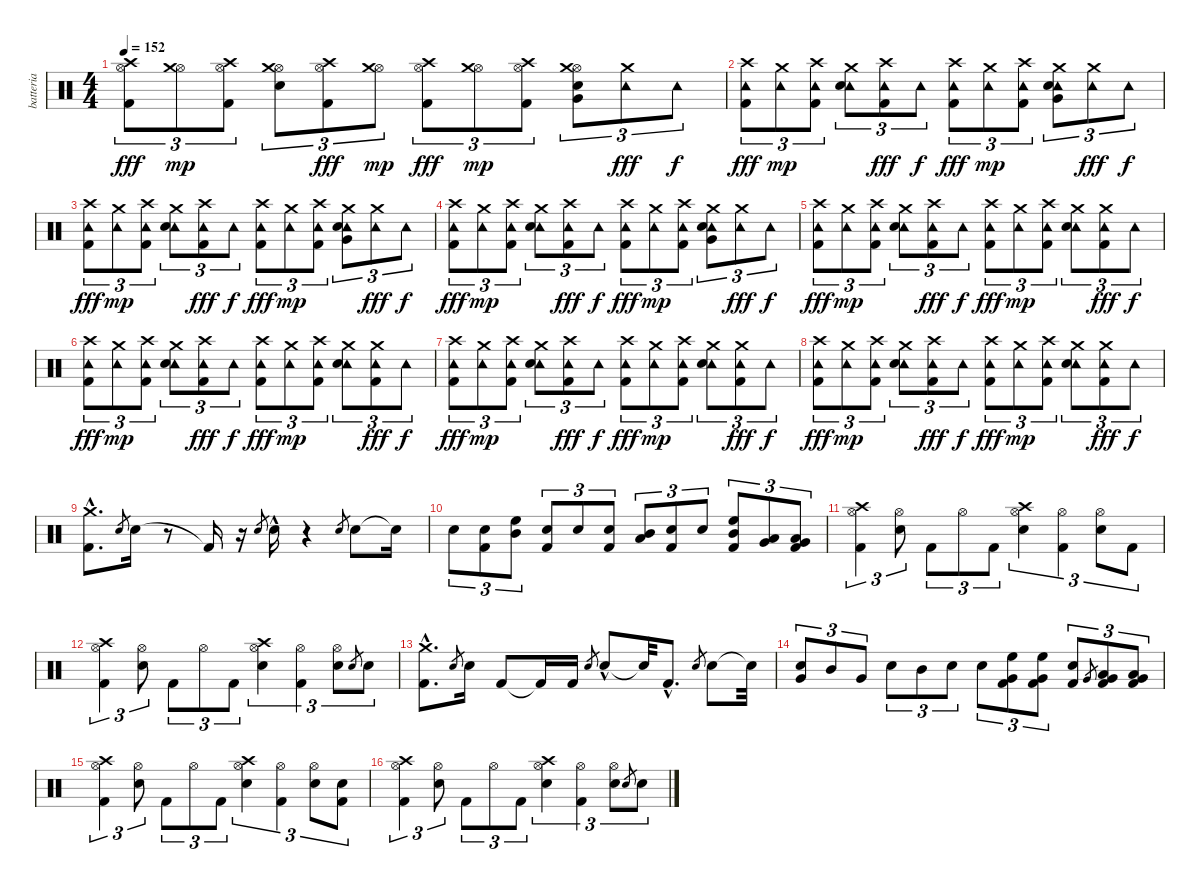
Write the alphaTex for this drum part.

\track ("batteria" "batteria") {instrument percussion}
\staff {score}
\articulation defaults
\ts (4 4)
\tempo 152
\clef neutral
\ks c
("Hi-Hat (open)" "Crash high (hit)" "Kick (hit) 2").8{tu (3 2) dy fff} ("Hi-Hat (open)" "Crash medium (hit)").8{tu (3 2) dy mp} ("Hi-Hat (open)" "Crash high (hit)" "Kick (hit) 2").8{tu (3 2)} ("Hi-Hat (open)" "Crash medium (hit)" "Electric Snare (hit)").8{tu (3 2)} ("Hi-Hat (open)" "Crash high (hit)" "Kick (hit) 2").8{tu (3 2) dy fff} ("Hi-Hat (open)" "Crash medium (hit)").8{tu (3 2) dy mp} ("Hi-Hat (open)" "Crash high (hit)" "Kick (hit) 2").8{tu (3 2) dy fff} ("Hi-Hat (open)" "Crash medium (hit)").8{tu (3 2) dy mp} ("Hi-Hat (open)" "Crash high (hit)" "Kick (hit) 2").8{tu (3 2)} ("Hi-Hat (open)" "Crash medium (hit)" "Very Low Tom (hit)" "Electric Snare (hit)").8{tu (3 2)} ("Tambourine (hit)" "Crash medium (hit)").8{tu (3 2) dy fff} "Tambourine (hit)".8{tu (3 2) dy f} |
("Tambourine (hit)" "Crash high (hit)" "Kick (hit) 2").8{tu (3 2) dy fff} ("Tambourine (hit)" "Crash medium (hit)").8{tu (3 2) dy mp} ("Tambourine (hit)" "Crash high (hit)" "Kick (hit) 2").8{tu (3 2)} ("Tambourine (hit)" "Crash medium (hit)" "Electric Snare (hit)").8{tu (3 2)} ("Tambourine (hit)" "Crash high (hit)" "Kick (hit) 2").8{tu (3 2) dy fff} "Tambourine (hit)".8{tu (3 2) dy f} ("Tambourine (hit)" "Crash high (hit)" "Kick (hit) 2").8{tu (3 2) dy fff} ("Tambourine (hit)" "Crash medium (hit)").8{tu (3 2) dy mp} ("Tambourine (hit)" "Crash high (hit)" "Kick (hit) 2").8{tu (3 2)} ("Tambourine (hit)" "Crash medium (hit)" "Very Low Tom (hit)" "Electric Snare (hit)").8{tu (3 2)} ("Tambourine (hit)" "Crash medium (hit)").8{tu (3 2) dy fff} "Tambourine (hit)".8{tu (3 2) dy f} |
("Tambourine (hit)" "Crash high (hit)" "Kick (hit) 2").8{tu (3 2) dy fff} ("Tambourine (hit)" "Crash medium (hit)").8{tu (3 2) dy mp} ("Tambourine (hit)" "Crash high (hit)" "Kick (hit) 2").8{tu (3 2)} ("Tambourine (hit)" "Crash medium (hit)" "Electric Snare (hit)").8{tu (3 2)} ("Tambourine (hit)" "Crash high (hit)" "Kick (hit) 2").8{tu (3 2) dy fff} "Tambourine (hit)".8{tu (3 2) dy f} ("Tambourine (hit)" "Crash high (hit)" "Kick (hit) 2").8{tu (3 2) dy fff} ("Tambourine (hit)" "Crash medium (hit)").8{tu (3 2) dy mp} ("Tambourine (hit)" "Crash high (hit)" "Kick (hit) 2").8{tu (3 2)} ("Tambourine (hit)" "Crash medium (hit)" "Very Low Tom (hit)" "Electric Snare (hit)").8{tu (3 2)} ("Tambourine (hit)" "Crash medium (hit)").8{tu (3 2) dy fff} "Tambourine (hit)".8{tu (3 2) dy f} |
("Tambourine (hit)" "Crash high (hit)" "Kick (hit) 2").8{tu (3 2) dy fff} ("Tambourine (hit)" "Crash medium (hit)").8{tu (3 2) dy mp} ("Tambourine (hit)" "Crash high (hit)" "Kick (hit) 2").8{tu (3 2)} ("Tambourine (hit)" "Crash medium (hit)" "Electric Snare (hit)").8{tu (3 2)} ("Tambourine (hit)" "Crash high (hit)" "Kick (hit) 2").8{tu (3 2) dy fff} "Tambourine (hit)".8{tu (3 2) dy f} ("Tambourine (hit)" "Crash high (hit)" "Kick (hit) 2").8{tu (3 2) dy fff} ("Tambourine (hit)" "Crash medium (hit)").8{tu (3 2) dy mp} ("Tambourine (hit)" "Crash high (hit)" "Kick (hit) 2").8{tu (3 2)} ("Tambourine (hit)" "Crash medium (hit)" "Very Low Tom (hit)" "Electric Snare (hit)").8{tu (3 2)} ("Tambourine (hit)" "Crash medium (hit)").8{tu (3 2) dy fff} "Tambourine (hit)".8{tu (3 2) dy f} |
("Tambourine (hit)" "Crash high (hit)" "Kick (hit) 2").8{tu (3 2) dy fff} ("Tambourine (hit)" "Crash medium (hit)").8{tu (3 2) dy mp} ("Tambourine (hit)" "Crash high (hit)" "Kick (hit) 2").8{tu (3 2)} ("Tambourine (hit)" "Crash medium (hit)" "Electric Snare (hit)").8{tu (3 2)} ("Tambourine (hit)" "Crash high (hit)" "Kick (hit) 2").8{tu (3 2) dy fff} "Tambourine (hit)".8{tu (3 2) dy f} ("Tambourine (hit)" "Crash high (hit)" "Kick (hit) 2").8{tu (3 2) dy fff} ("Tambourine (hit)" "Crash medium (hit)").8{tu (3 2) dy mp} ("Tambourine (hit)" "Crash high (hit)" "Kick (hit) 2").8{tu (3 2)} ("Tambourine (hit)" "Crash medium (hit)" "Electric Snare (hit)").8{tu (3 2)} ("Tambourine (hit)" "Crash medium (hit)" "Kick (hit) 2").8{tu (3 2) dy fff} "Tambourine (hit)".8{tu (3 2) dy f} |
("Tambourine (hit)" "Crash high (hit)" "Kick (hit) 2").8{tu (3 2) dy fff} ("Tambourine (hit)" "Crash medium (hit)").8{tu (3 2) dy mp} ("Tambourine (hit)" "Crash high (hit)" "Kick (hit) 2").8{tu (3 2)} ("Tambourine (hit)" "Crash medium (hit)" "Electric Snare (hit)").8{tu (3 2)} ("Tambourine (hit)" "Crash high (hit)" "Kick (hit) 2").8{tu (3 2) dy fff} "Tambourine (hit)".8{tu (3 2) dy f} ("Tambourine (hit)" "Crash high (hit)" "Kick (hit) 2").8{tu (3 2) dy fff} ("Tambourine (hit)" "Crash medium (hit)").8{tu (3 2) dy mp} ("Tambourine (hit)" "Crash high (hit)" "Kick (hit) 2").8{tu (3 2)} ("Tambourine (hit)" "Crash medium (hit)" "Electric Snare (hit)").8{tu (3 2)} ("Tambourine (hit)" "Crash medium (hit)" "Kick (hit) 2").8{tu (3 2) dy fff} "Tambourine (hit)".8{tu (3 2) dy f} |
("Tambourine (hit)" "Crash high (hit)" "Kick (hit) 2").8{tu (3 2) dy fff} ("Tambourine (hit)" "Crash medium (hit)").8{tu (3 2) dy mp} ("Tambourine (hit)" "Crash high (hit)" "Kick (hit) 2").8{tu (3 2)} ("Tambourine (hit)" "Crash medium (hit)" "Electric Snare (hit)").8{tu (3 2)} ("Tambourine (hit)" "Crash high (hit)" "Kick (hit) 2").8{tu (3 2) dy fff} "Tambourine (hit)".8{tu (3 2) dy f} ("Tambourine (hit)" "Crash high (hit)" "Kick (hit) 2").8{tu (3 2) dy fff} ("Tambourine (hit)" "Crash medium (hit)").8{tu (3 2) dy mp} ("Tambourine (hit)" "Crash high (hit)" "Kick (hit) 2").8{tu (3 2)} ("Tambourine (hit)" "Crash medium (hit)" "Electric Snare (hit)").8{tu (3 2)} ("Tambourine (hit)" "Crash medium (hit)" "Kick (hit) 2").8{tu (3 2) dy fff} "Tambourine (hit)".8{tu (3 2) dy f} |
("Tambourine (hit)" "Crash high (hit)" "Kick (hit) 2").8{tu (3 2) dy fff} ("Tambourine (hit)" "Crash medium (hit)").8{tu (3 2) dy mp} ("Tambourine (hit)" "Crash high (hit)" "Kick (hit) 2").8{tu (3 2)} ("Tambourine (hit)" "Crash medium (hit)" "Electric Snare (hit)").8{tu (3 2)} ("Tambourine (hit)" "Crash high (hit)" "Kick (hit) 2").8{tu (3 2) dy fff} "Tambourine (hit)".8{tu (3 2) dy f} ("Tambourine (hit)" "Crash high (hit)" "Kick (hit) 2").8{tu (3 2) dy fff} ("Tambourine (hit)" "Crash medium (hit)").8{tu (3 2) dy mp} ("Tambourine (hit)" "Crash high (hit)" "Kick (hit) 2").8{tu (3 2)} ("Tambourine (hit)" "Crash medium (hit)" "Electric Snare (hit)").8{tu (3 2)} ("Tambourine (hit)" "Crash medium (hit)" "Kick (hit) 2").8{tu (3 2) dy fff} "Tambourine (hit)".8{tu (3 2) dy f} |
("Crash medium (hit)"{hac} "Kick (hit) 2"{hac}).8{d} "Electric Snare (hit)".8{gr} "Electric Snare (hit)".16 r.8 "Kick (hit) 2"{t}.16 r.16 "Electric Snare (hit)".8{gr} "Electric Snare (hit)"{hac}.16 r.4 "Electric Snare (hit)".8{gr} "Electric Snare (hit)".8 "Snare (hit)"{t}.16 |
"Electric Snare (hit)".8{tu (3 2)} ("Electric Snare (hit)" "Kick (hit) 2").8{tu (3 2)} ("High Floor Tom (hit)" "Mid Tom (hit)").8{tu (3 2)} ("Electric Snare (hit)" "Kick (hit) 2").8{tu (3 2)} "Electric Snare (hit)".8{tu (3 2)} ("Electric Snare (hit)" "Kick (hit) 2").8{tu (3 2)} ("Low Floor Tom (hit)" "Mid Tom (hit)").8{tu (3 2)} ("Electric Snare (hit)" "Kick (hit) 2").8{tu (3 2)} "Electric Snare (hit)".8{tu (3 2)} ("Mid Tom (hit)" "High Floor Tom (hit)" "Kick (hit) 2").8{tu (3 2)} ("Low Tom (hit)" "Very Low Tom (hit)").8{tu (3 2)} ("Low Floor Tom (hit)" "Very Low Tom (hit)" "Kick (hit) 2").8{tu (3 2)} |
("Hi-Hat (open)" "Crash high (hit)" "Kick (hit) 2").4{tu (3 2)} ("Hi-Hat (open)" "Electric Snare (hit)").8{tu (3 2)} "Kick (hit) 2".8{tu (3 2)} "Hi-Hat (open)".8{tu (3 2)} "Kick (hit) 2".8{tu (3 2)} ("Hi-Hat (open)" "Crash high (hit)" "Electric Snare (hit)").4{tu (3 2)} ("Hi-Hat (open)" "Kick (hit) 2").4{tu (3 2)} ("Hi-Hat (open)" "Electric Snare (hit)").8{tu (3 2)} "Kick (hit) 2".8{tu (3 2)} |
("Hi-Hat (open)" "Crash high (hit)" "Kick (hit) 2").4{tu (3 2)} ("Hi-Hat (open)" "Electric Snare (hit)").8{tu (3 2)} "Kick (hit) 2".8{tu (3 2)} "Hi-Hat (open)".8{tu (3 2)} "Kick (hit) 2".8{tu (3 2)} ("Hi-Hat (open)" "Crash high (hit)" "Electric Snare (hit)").4{tu (3 2)} ("Hi-Hat (open)" "Kick (hit) 2").4{tu (3 2)} ("Hi-Hat (open)" "Electric Snare (hit)").8{tu (3 2)} "Electric Snare (hit)".8{gr} "Electric Snare (hit)".8{tu (3 2)} |
("Crash medium (hit)"{hac} "Kick (hit) 2"{hac}).8{d} "Electric Snare (hit)".8{gr} "Electric Snare (hit)".16 "Kick (hit) 2".8 "Kick (hit) 2"{t}.16 "Kick (hit) 2".16 "Electric Snare (hit)".8{gr} "Electric Snare (hit)"{hac}.8 "Electric Snare (hit)"{t}.32 "Kick (hit) 2"{hac}.8{d} "Electric Snare (hit)".8{gr} "Electric Snare (hit)".8 "Electric Snare (hit)"{t}.32 |
("Very Low Tom (hit)" "Electric Snare (hit)").8{tu (3 2)} "Mid Tom (hit)".8{tu (3 2)} "Very Low Tom (hit)".8{tu (3 2)} "Electric Snare (hit)".8{tu (3 2)} "Mid Tom (hit)".8{tu (3 2)} "Electric Snare (hit)".8{tu (3 2)} "Electric Snare (hit)".8{tu (3 2)} ("Very Low Tom (hit)" "High Floor Tom (hit)" "Kick (hit) 2").8{tu (3 2)} ("Very Low Tom (hit)" "High Floor Tom (hit)" "Kick (hit) 2").8{tu (3 2)} ("Electric Snare (hit)" "Kick (hit) 2").8{tu (3 2)} "Very Low Tom (hit)".8{gr} ("Low Tom (hit)" "Very Low Tom (hit)" "Kick (hit) 2").8{tu (3 2)} ("Low Floor Tom (hit)" "Very Low Tom (hit)" "Kick (hit) 2").8{tu (3 2)} |
("Hi-Hat (open)" "Crash high (hit)" "Kick (hit) 2").4{tu (3 2)} ("Hi-Hat (open)" "Electric Snare (hit)").8{tu (3 2)} "Kick (hit) 2".8{tu (3 2)} "Hi-Hat (open)".8{tu (3 2)} "Kick (hit) 2".8{tu (3 2)} ("Hi-Hat (open)" "Crash high (hit)" "Electric Snare (hit)").4{tu (3 2)} ("Hi-Hat (open)" "Kick (hit) 2").4{tu (3 2)} ("Hi-Hat (open)" "Electric Snare (hit)").8{tu (3 2)} ("Electric Snare (hit)" "Kick (hit) 2").8{tu (3 2)} |
("Hi-Hat (open)" "Crash high (hit)" "Kick (hit) 2").4{tu (3 2)} ("Hi-Hat (open)" "Electric Snare (hit)").8{tu (3 2)} "Kick (hit) 2".8{tu (3 2)} "Hi-Hat (open)".8{tu (3 2)} "Kick (hit) 2".8{tu (3 2)} ("Hi-Hat (open)" "Crash high (hit)" "Electric Snare (hit)").4{tu (3 2)} ("Hi-Hat (open)" "Kick (hit) 2").4{tu (3 2)} ("Hi-Hat (open)" "Electric Snare (hit)").8{tu (3 2)} "Electric Snare (hit)".8{gr} "Electric Snare (hit)".8{tu (3 2)}
